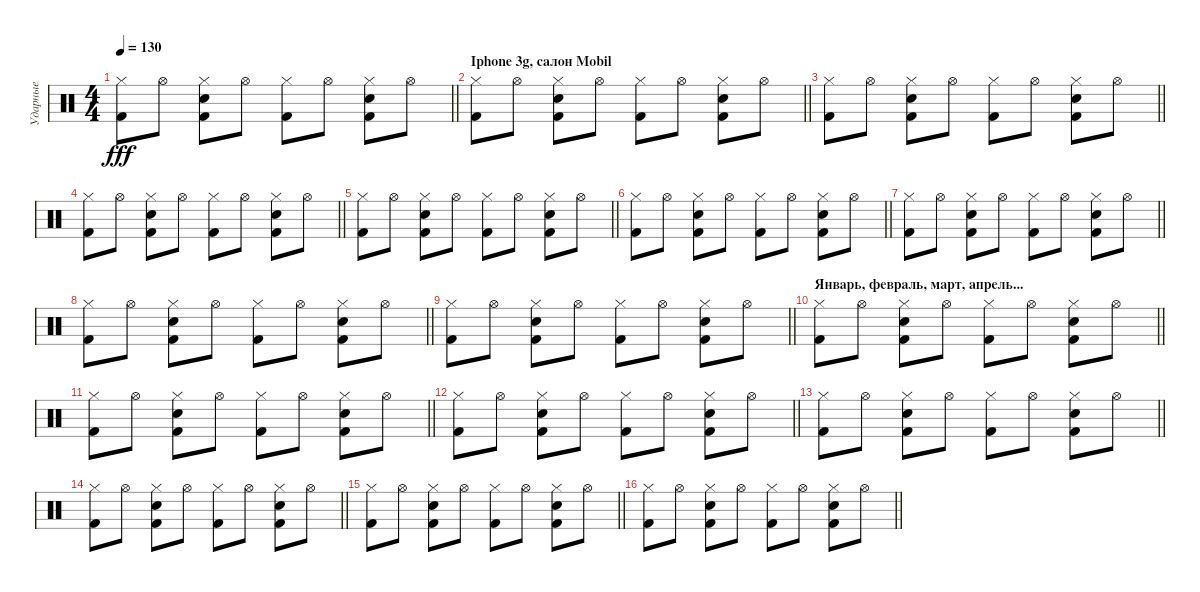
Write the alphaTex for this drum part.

\track ("Ударные" "Ударные") {instrument percussion}
\staff {score}
\articulation defaults
\ts (4 4)
\tempo 130
\clef neutral
\barLineRight lightlight
\ks c
("Kick (hit) 2" "Hi-Hat (closed)").8{dy fff} "Hi-Hat (open)".8 ("Kick (hit) 2" "Hi-Hat (closed)" "Electric Snare (hit)").8 "Hi-Hat (open)".8 ("Kick (hit) 2" "Hi-Hat (closed)").8 "Hi-Hat (open)".8 ("Kick (hit) 2" "Hi-Hat (closed)" "Electric Snare (hit)").8 "Hi-Hat (open)".8 |
\section ("" "Iphone 3g, салон Mobil")
\barLineRight lightlight
("Kick (hit) 2" "Hi-Hat (closed)").8 "Hi-Hat (open)".8 ("Kick (hit) 2" "Hi-Hat (closed)" "Electric Snare (hit)").8 "Hi-Hat (open)".8 ("Kick (hit) 2" "Hi-Hat (closed)").8 "Hi-Hat (open)".8 ("Kick (hit) 2" "Hi-Hat (closed)" "Electric Snare (hit)").8 "Hi-Hat (open)".8 |
\barLineRight lightlight
("Kick (hit) 2" "Hi-Hat (closed)").8 "Hi-Hat (open)".8 ("Kick (hit) 2" "Hi-Hat (closed)" "Electric Snare (hit)").8 "Hi-Hat (open)".8 ("Kick (hit) 2" "Hi-Hat (closed)").8 "Hi-Hat (open)".8 ("Kick (hit) 2" "Hi-Hat (closed)" "Electric Snare (hit)").8 "Hi-Hat (open)".8 |
\barLineRight lightlight
("Kick (hit) 2" "Hi-Hat (closed)").8 "Hi-Hat (open)".8 ("Kick (hit) 2" "Hi-Hat (closed)" "Electric Snare (hit)").8 "Hi-Hat (open)".8 ("Kick (hit) 2" "Hi-Hat (closed)").8 "Hi-Hat (open)".8 ("Kick (hit) 2" "Hi-Hat (closed)" "Electric Snare (hit)").8 "Hi-Hat (open)".8 |
\barLineRight lightlight
("Kick (hit) 2" "Hi-Hat (closed)").8 "Hi-Hat (open)".8 ("Kick (hit) 2" "Hi-Hat (closed)" "Electric Snare (hit)").8 "Hi-Hat (open)".8 ("Kick (hit) 2" "Hi-Hat (closed)").8 "Hi-Hat (open)".8 ("Kick (hit) 2" "Hi-Hat (closed)" "Electric Snare (hit)").8 "Hi-Hat (open)".8 |
\barLineRight lightlight
("Kick (hit) 2" "Hi-Hat (closed)").8 "Hi-Hat (open)".8 ("Kick (hit) 2" "Hi-Hat (closed)" "Electric Snare (hit)").8 "Hi-Hat (open)".8 ("Kick (hit) 2" "Hi-Hat (closed)").8 "Hi-Hat (open)".8 ("Kick (hit) 2" "Hi-Hat (closed)" "Electric Snare (hit)").8 "Hi-Hat (open)".8 |
\barLineRight lightlight
("Kick (hit) 2" "Hi-Hat (closed)").8 "Hi-Hat (open)".8 ("Kick (hit) 2" "Hi-Hat (closed)" "Electric Snare (hit)").8 "Hi-Hat (open)".8 ("Kick (hit) 2" "Hi-Hat (closed)").8 "Hi-Hat (open)".8 ("Kick (hit) 2" "Hi-Hat (closed)" "Electric Snare (hit)").8 "Hi-Hat (open)".8 |
\barLineRight lightlight
("Kick (hit) 2" "Hi-Hat (closed)").8 "Hi-Hat (open)".8 ("Kick (hit) 2" "Hi-Hat (closed)" "Electric Snare (hit)").8 "Hi-Hat (open)".8 ("Kick (hit) 2" "Hi-Hat (closed)").8 "Hi-Hat (open)".8 ("Kick (hit) 2" "Hi-Hat (closed)" "Electric Snare (hit)").8 "Hi-Hat (open)".8 |
\barLineRight lightlight
("Kick (hit) 2" "Hi-Hat (closed)").8 "Hi-Hat (open)".8 ("Kick (hit) 2" "Hi-Hat (closed)" "Electric Snare (hit)").8 "Hi-Hat (open)".8 ("Kick (hit) 2" "Hi-Hat (closed)").8 "Hi-Hat (open)".8 ("Kick (hit) 2" "Hi-Hat (closed)" "Electric Snare (hit)").8 "Hi-Hat (open)".8 |
\section ("" "Январь, февраль, март, апрель...")
\barLineRight lightlight
("Kick (hit) 2" "Hi-Hat (closed)").8 "Hi-Hat (open)".8 ("Kick (hit) 2" "Hi-Hat (closed)" "Electric Snare (hit)").8 "Hi-Hat (open)".8 ("Kick (hit) 2" "Hi-Hat (closed)").8 "Hi-Hat (open)".8 ("Kick (hit) 2" "Hi-Hat (closed)" "Electric Snare (hit)").8 "Hi-Hat (open)".8 |
\barLineRight lightlight
("Kick (hit) 2" "Hi-Hat (closed)").8 "Hi-Hat (open)".8 ("Kick (hit) 2" "Hi-Hat (closed)" "Electric Snare (hit)").8 "Hi-Hat (open)".8 ("Kick (hit) 2" "Hi-Hat (closed)").8 "Hi-Hat (open)".8 ("Kick (hit) 2" "Hi-Hat (closed)" "Electric Snare (hit)").8 "Hi-Hat (open)".8 |
\barLineRight lightlight
("Kick (hit) 2" "Hi-Hat (closed)").8 "Hi-Hat (open)".8 ("Kick (hit) 2" "Hi-Hat (closed)" "Electric Snare (hit)").8 "Hi-Hat (open)".8 ("Kick (hit) 2" "Hi-Hat (closed)").8 "Hi-Hat (open)".8 ("Kick (hit) 2" "Hi-Hat (closed)" "Electric Snare (hit)").8 "Hi-Hat (open)".8 |
\barLineRight lightlight
("Kick (hit) 2" "Hi-Hat (closed)").8 "Hi-Hat (open)".8 ("Kick (hit) 2" "Hi-Hat (closed)" "Electric Snare (hit)").8 "Hi-Hat (open)".8 ("Kick (hit) 2" "Hi-Hat (closed)").8 "Hi-Hat (open)".8 ("Kick (hit) 2" "Hi-Hat (closed)" "Electric Snare (hit)").8 "Hi-Hat (open)".8 |
\barLineRight lightlight
("Kick (hit) 2" "Hi-Hat (closed)").8 "Hi-Hat (open)".8 ("Kick (hit) 2" "Hi-Hat (closed)" "Electric Snare (hit)").8 "Hi-Hat (open)".8 ("Kick (hit) 2" "Hi-Hat (closed)").8 "Hi-Hat (open)".8 ("Kick (hit) 2" "Hi-Hat (closed)" "Electric Snare (hit)").8 "Hi-Hat (open)".8 |
\barLineRight lightlight
("Kick (hit) 2" "Hi-Hat (closed)").8 "Hi-Hat (open)".8 ("Kick (hit) 2" "Hi-Hat (closed)" "Electric Snare (hit)").8 "Hi-Hat (open)".8 ("Kick (hit) 2" "Hi-Hat (closed)").8 "Hi-Hat (open)".8 ("Kick (hit) 2" "Hi-Hat (closed)" "Electric Snare (hit)").8 "Hi-Hat (open)".8 |
\barLineRight lightlight
("Kick (hit) 2" "Hi-Hat (closed)").8 "Hi-Hat (open)".8 ("Kick (hit) 2" "Hi-Hat (closed)" "Electric Snare (hit)").8 "Hi-Hat (open)".8 ("Kick (hit) 2" "Hi-Hat (closed)").8 "Hi-Hat (open)".8 ("Kick (hit) 2" "Hi-Hat (closed)" "Electric Snare (hit)").8 "Hi-Hat (open)".8
